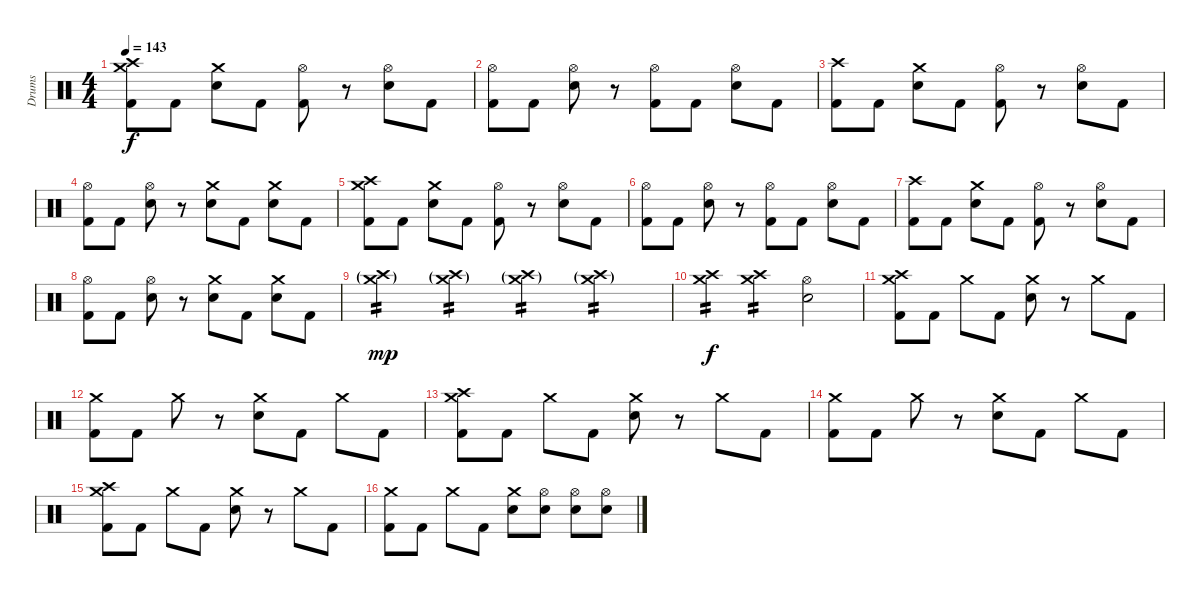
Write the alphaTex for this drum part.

\track ("Drums" "Drums") {instrument percussion}
\staff {score}
\articulation defaults
\ts (4 4)
\tempo 143
\clef neutral
\ks c
("Crash high (hit)" "Crash medium (hit)" "Kick (hit) 2").8{dy f} "Kick (hit) 2".8 ("Crash medium (hit)" "Electric Snare (hit)").8 "Kick (hit) 2".8 ("Hi-Hat (open)" "Kick (hit) 2").8 r.8 ("Hi-Hat (open)" "Electric Snare (hit)").8 "Kick (hit) 2".8 |
("Hi-Hat (open)" "Kick (hit) 2").8 "Kick (hit) 2".8 ("Hi-Hat (open)" "Electric Snare (hit)").8 r.8 ("Hi-Hat (open)" "Kick (hit) 2").8 "Kick (hit) 2".8 ("Hi-Hat (open)" "Electric Snare (hit)").8 "Kick (hit) 2".8 |
("Crash high (hit)" "Kick (hit) 2").8 "Kick (hit) 2".8 ("Crash medium (hit)" "Electric Snare (hit)").8 "Kick (hit) 2".8 ("Hi-Hat (open)" "Kick (hit) 2").8 r.8 ("Hi-Hat (open)" "Electric Snare (hit)").8 "Kick (hit) 2".8 |
("Hi-Hat (open)" "Kick (hit) 2").8 "Kick (hit) 2".8 ("Hi-Hat (open)" "Electric Snare (hit)").8 r.8 ("Crash medium (hit)" "Electric Snare (hit)").8 "Kick (hit) 2".8 ("Crash medium (hit)" "Electric Snare (hit)").8 "Kick (hit) 2".8 |
("Crash high (hit)" "Crash medium (hit)" "Kick (hit) 2").8 "Kick (hit) 2".8 ("Crash medium (hit)" "Electric Snare (hit)").8 "Kick (hit) 2".8 ("Hi-Hat (open)" "Kick (hit) 2").8 r.8 ("Hi-Hat (open)" "Electric Snare (hit)").8 "Kick (hit) 2".8 |
("Hi-Hat (open)" "Kick (hit) 2").8 "Kick (hit) 2".8 ("Hi-Hat (open)" "Electric Snare (hit)").8 r.8 ("Hi-Hat (open)" "Kick (hit) 2").8 "Kick (hit) 2".8 ("Hi-Hat (open)" "Electric Snare (hit)").8 "Kick (hit) 2".8 |
("Crash high (hit)" "Kick (hit) 2").8 "Kick (hit) 2".8 ("Crash medium (hit)" "Electric Snare (hit)").8 "Kick (hit) 2".8 ("Hi-Hat (open)" "Kick (hit) 2").8 r.8 ("Hi-Hat (open)" "Electric Snare (hit)").8 "Kick (hit) 2".8 |
("Hi-Hat (open)" "Kick (hit) 2").8 "Kick (hit) 2".8 ("Hi-Hat (open)" "Electric Snare (hit)").8 r.8 ("Crash medium (hit)" "Electric Snare (hit)").8 "Kick (hit) 2".8 ("Crash medium (hit)" "Electric Snare (hit)").8 "Kick (hit) 2".8 |
("Crash high (hit)"{g} "Crash medium (hit)"{g}).4{tp 2 dy mp} ("Crash high (hit)"{g} "Crash medium (hit)"{g}).4{tp 2} ("Crash high (hit)"{g} "Crash medium (hit)"{g}).4{tp 2} ("Crash high (hit)"{g} "Crash medium (hit)"{g}).4{tp 2} |
("Crash high (hit)" "Crash medium (hit)").4{tp 2 dy f} ("Crash high (hit)" "Crash medium (hit)").4{tp 2} ("Hi-Hat (open)" "Electric Snare (hit)").2 |
("Crash high (hit)" "Crash medium (hit)" "Kick (hit) 2").8 "Kick (hit) 2".8 "Crash medium (hit)".8 "Kick (hit) 2".8 ("Crash medium (hit)" "Electric Snare (hit)").8 r.8 "Crash medium (hit)".8 "Kick (hit) 2".8 |
("Crash medium (hit)" "Kick (hit) 2").8 "Kick (hit) 2".8 "Crash medium (hit)".8 r.8 ("Crash medium (hit)" "Electric Snare (hit)").8 "Kick (hit) 2".8 "Crash medium (hit)".8 "Kick (hit) 2".8 |
("Crash high (hit)" "Crash medium (hit)" "Kick (hit) 2").8 "Kick (hit) 2".8 "Crash medium (hit)".8 "Kick (hit) 2".8 ("Crash medium (hit)" "Electric Snare (hit)").8 r.8 "Crash medium (hit)".8 "Kick (hit) 2".8 |
("Crash medium (hit)" "Kick (hit) 2").8 "Kick (hit) 2".8 "Crash medium (hit)".8 r.8 ("Crash medium (hit)" "Electric Snare (hit)").8 "Kick (hit) 2".8 "Crash medium (hit)".8 "Kick (hit) 2".8 |
("Crash high (hit)" "Crash medium (hit)" "Kick (hit) 2").8 "Kick (hit) 2".8 "Crash medium (hit)".8 "Kick (hit) 2".8 ("Crash medium (hit)" "Electric Snare (hit)").8 r.8 "Crash medium (hit)".8 "Kick (hit) 2".8 |
("Crash medium (hit)" "Kick (hit) 2").8 "Kick (hit) 2".8 "Crash medium (hit)".8 "Kick (hit) 2".8 ("Crash medium (hit)" "Electric Snare (hit)").8 ("Hi-Hat (open)" "Electric Snare (hit)").8 ("Hi-Hat (open)" "Electric Snare (hit)").8 ("Hi-Hat (open)" "Electric Snare (hit)").8
